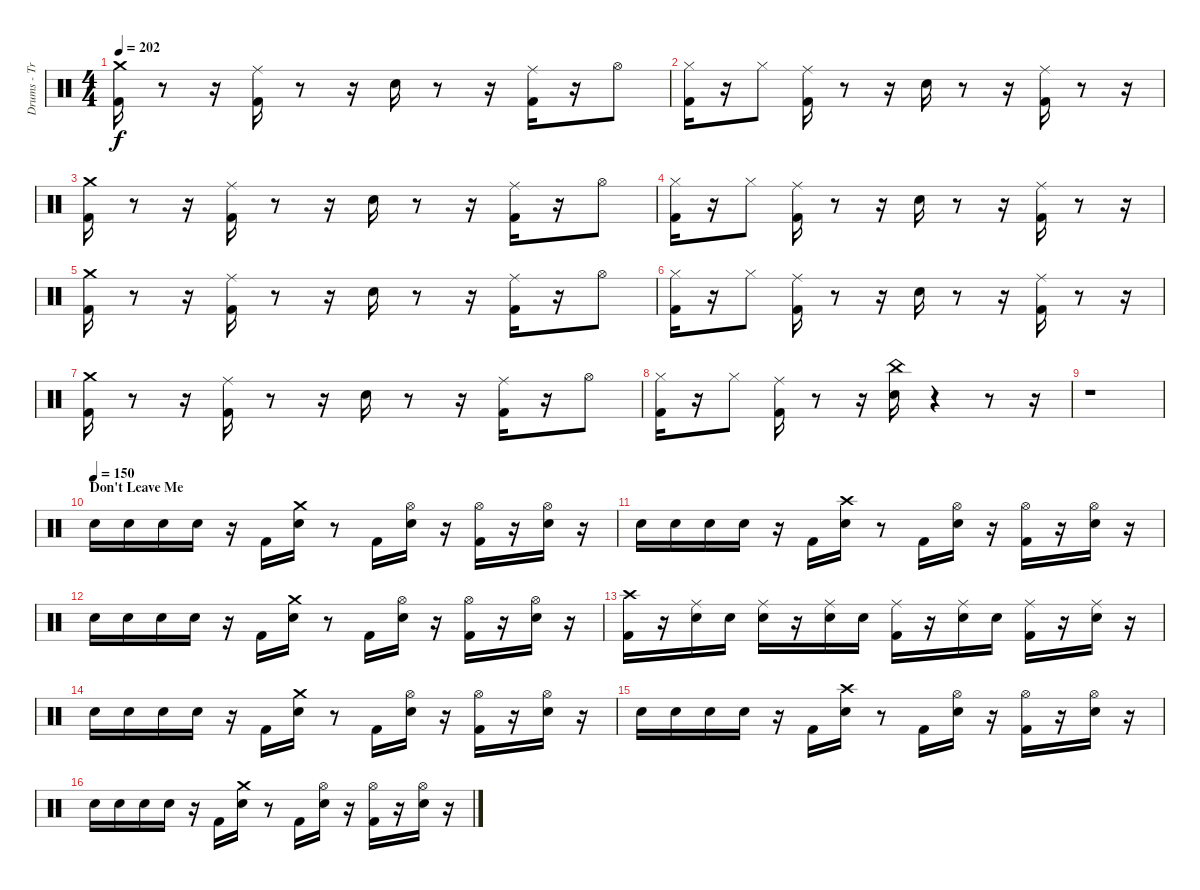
\track ("Drums - Travis Barker" "Drums - Tr") {instrument percussion}
\staff {score}
\articulation defaults
\ts (4 4)
\tempo 202
\clef neutral
\ks c
("Crash medium (hit)" "Kick (hit) 2").16{dy f} r.8 r.16 ("Ride (middle)" "Kick (hit) 2").16 r.8 r.16 "Electric Snare (hit)".16 r.8 r.16 ("Ride (middle)" "Kick (hit) 2").16 r.16 "Hi-Hat (open)".8 |
("Kick (hit) 2" "Hi-Hat (closed)").16 r.16 "Hi-Hat (closed)".8 ("Ride (middle)" "Kick (hit) 2").16 r.8 r.16 "Electric Snare (hit)".16 r.8 r.16 ("Ride (middle)" "Kick (hit) 2").16 r.8 r.16 |
("Crash medium (hit)" "Kick (hit) 2").16 r.8 r.16 ("Ride (middle)" "Kick (hit) 2").16 r.8 r.16 "Electric Snare (hit)".16 r.8 r.16 ("Ride (middle)" "Kick (hit) 2").16 r.16 "Hi-Hat (open)".8 |
("Kick (hit) 2" "Hi-Hat (closed)").16 r.16 "Hi-Hat (closed)".8 ("Ride (middle)" "Kick (hit) 2").16 r.8 r.16 "Electric Snare (hit)".16 r.8 r.16 ("Ride (middle)" "Kick (hit) 2").16 r.8 r.16 |
("Crash medium (hit)" "Kick (hit) 2").16 r.8 r.16 ("Ride (middle)" "Kick (hit) 2").16 r.8 r.16 "Electric Snare (hit)".16 r.8 r.16 ("Ride (middle)" "Kick (hit) 2").16 r.16 "Hi-Hat (open)".8 |
("Kick (hit) 2" "Hi-Hat (closed)").16 r.16 "Hi-Hat (closed)".8 ("Ride (middle)" "Kick (hit) 2").16 r.8 r.16 "Electric Snare (hit)".16 r.8 r.16 ("Ride (middle)" "Kick (hit) 2").16 r.8 r.16 |
("Crash medium (hit)" "Kick (hit) 2").16 r.8 r.16 ("Ride (middle)" "Kick (hit) 2").16 r.8 r.16 "Electric Snare (hit)".16 r.8 r.16 ("Ride (middle)" "Kick (hit) 2").16 r.16 "Hi-Hat (open)".8 |
("Kick (hit) 2" "Hi-Hat (closed)").16 r.16 "Hi-Hat (closed)".8 ("Ride (middle)" "Kick (hit) 2").16 r.8 r.16 ("China (hit)" "Electric Snare (hit)").16 r.4 r.8 r.16 |
r.1 |
\section ("" "Don't Leave Me")
\tempo (150)
"Electric Snare (hit)".16 "Electric Snare (hit)".16 "Electric Snare (hit)".16 "Electric Snare (hit)".16 r.16 "Kick (hit) 2".16 ("Crash medium (hit)" "Electric Snare (hit)").16 r.8 "Kick (hit) 2".16 ("Hi-Hat (open)" "Electric Snare (hit)").16 r.16 ("Hi-Hat (open)" "Kick (hit) 2").16 r.16 ("Hi-Hat (open)" "Electric Snare (hit)").16 r.16 |
"Electric Snare (hit)".16 "Electric Snare (hit)".16 "Electric Snare (hit)".16 "Electric Snare (hit)".16 r.16 "Kick (hit) 2".16 ("Crash high (hit)" "Electric Snare (hit)").16 r.8 "Kick (hit) 2".16 ("Hi-Hat (open)" "Electric Snare (hit)").16 r.16 ("Hi-Hat (open)" "Kick (hit) 2").16 r.16 ("Hi-Hat (open)" "Electric Snare (hit)").16 r.16 |
"Electric Snare (hit)".16 "Electric Snare (hit)".16 "Electric Snare (hit)".16 "Electric Snare (hit)".16 r.16 "Kick (hit) 2".16 ("Crash medium (hit)" "Electric Snare (hit)").16 r.8 "Kick (hit) 2".16 ("Hi-Hat (open)" "Electric Snare (hit)").16 r.16 ("Hi-Hat (open)" "Kick (hit) 2").16 r.16 ("Hi-Hat (open)" "Electric Snare (hit)").16 r.16 |
("Crash high (hit)" "Kick (hit) 2").16 r.16 ("Ride (middle)" "Electric Snare (hit)").16 "Electric Snare (hit)".16 ("Hand Clap (hit)" "Ride (middle)").16 r.16 ("Ride (middle)" "Electric Snare (hit)").16 "Electric Snare (hit)".16 ("Ride (middle)" "Kick (hit) 2").16 r.16 ("Ride (middle)" "Electric Snare (hit)").16 "Electric Snare (hit)".16 ("Ride (middle)" "Kick (hit) 2").16 r.16 ("Ride (middle)" "Electric Snare (hit)").16 r.16 |
"Electric Snare (hit)".16 "Electric Snare (hit)".16 "Electric Snare (hit)".16 "Electric Snare (hit)".16 r.16 "Kick (hit) 2".16 ("Crash medium (hit)" "Electric Snare (hit)").16 r.8 "Kick (hit) 2".16 ("Hi-Hat (open)" "Electric Snare (hit)").16 r.16 ("Hi-Hat (open)" "Kick (hit) 2").16 r.16 ("Hi-Hat (open)" "Electric Snare (hit)").16 r.16 |
"Electric Snare (hit)".16 "Electric Snare (hit)".16 "Electric Snare (hit)".16 "Electric Snare (hit)".16 r.16 "Kick (hit) 2".16 ("Crash high (hit)" "Electric Snare (hit)").16 r.8 "Kick (hit) 2".16 ("Hi-Hat (open)" "Electric Snare (hit)").16 r.16 ("Hi-Hat (open)" "Kick (hit) 2").16 r.16 ("Hi-Hat (open)" "Electric Snare (hit)").16 r.16 |
"Electric Snare (hit)".16 "Electric Snare (hit)".16 "Electric Snare (hit)".16 "Electric Snare (hit)".16 r.16 "Kick (hit) 2".16 ("Crash medium (hit)" "Electric Snare (hit)").16 r.8 "Kick (hit) 2".16 ("Hi-Hat (open)" "Electric Snare (hit)").16 r.16 ("Hi-Hat (open)" "Kick (hit) 2").16 r.16 ("Hi-Hat (open)" "Electric Snare (hit)").16 r.16
